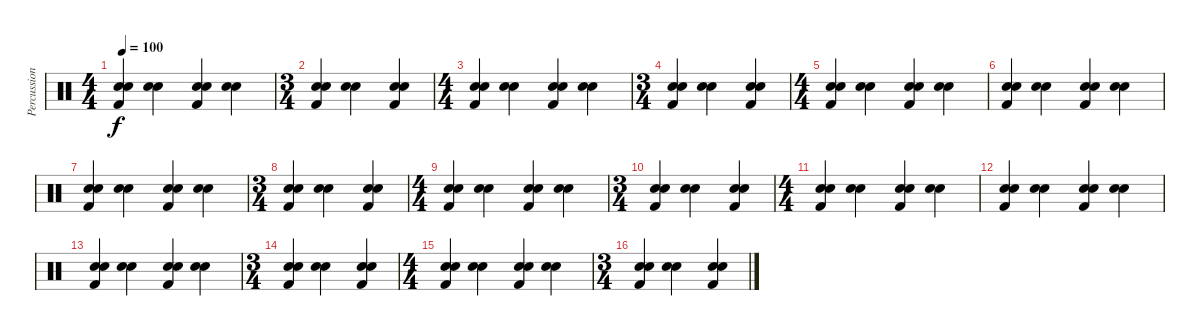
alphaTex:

\track ("Percussion" "Percussion") {instrument percussion}
\staff {score}
\articulation defaults
\ts (4 4)
\tempo 100
\clef neutral
\ks c
("Snare (hit) 2" "Hand Clap (hit)" "Kick (hit) 2").4{dy f} ("Snare (hit) 2" "Hand Clap (hit)").4 ("Snare (hit) 2" "Hand Clap (hit)" "Kick (hit) 2").4 ("Snare (hit) 2" "Hand Clap (hit)").4 |
\ts (3 4)
("Snare (hit) 2" "Hand Clap (hit)" "Kick (hit) 2").4 ("Snare (hit) 2" "Hand Clap (hit)").4 ("Snare (hit) 2" "Hand Clap (hit)" "Kick (hit) 2").4 |
\ts (4 4)
("Snare (hit) 2" "Hand Clap (hit)" "Kick (hit) 2").4 ("Snare (hit) 2" "Hand Clap (hit)").4 ("Snare (hit) 2" "Hand Clap (hit)" "Kick (hit) 2").4 ("Snare (hit) 2" "Hand Clap (hit)").4 |
\ts (3 4)
("Snare (hit) 2" "Hand Clap (hit)" "Kick (hit) 2").4 ("Snare (hit) 2" "Hand Clap (hit)").4 ("Snare (hit) 2" "Hand Clap (hit)" "Kick (hit) 2").4 |
\ts (4 4)
("Snare (hit) 2" "Hand Clap (hit)" "Kick (hit) 2").4 ("Snare (hit) 2" "Hand Clap (hit)").4 ("Snare (hit) 2" "Hand Clap (hit)" "Kick (hit) 2").4 ("Snare (hit) 2" "Hand Clap (hit)").4 |
("Snare (hit) 2" "Hand Clap (hit)" "Kick (hit) 2").4 ("Snare (hit) 2" "Hand Clap (hit)").4 ("Snare (hit) 2" "Hand Clap (hit)" "Kick (hit) 2").4 ("Snare (hit) 2" "Hand Clap (hit)").4 |
("Snare (hit) 2" "Hand Clap (hit)" "Kick (hit) 2").4 ("Snare (hit) 2" "Hand Clap (hit)").4 ("Snare (hit) 2" "Hand Clap (hit)" "Kick (hit) 2").4 ("Snare (hit) 2" "Hand Clap (hit)").4 |
\ts (3 4)
("Snare (hit) 2" "Hand Clap (hit)" "Kick (hit) 2").4 ("Snare (hit) 2" "Hand Clap (hit)").4 ("Snare (hit) 2" "Hand Clap (hit)" "Kick (hit) 2").4 |
\ts (4 4)
("Snare (hit) 2" "Hand Clap (hit)" "Kick (hit) 2").4 ("Snare (hit) 2" "Hand Clap (hit)").4 ("Snare (hit) 2" "Hand Clap (hit)" "Kick (hit) 2").4 ("Snare (hit) 2" "Hand Clap (hit)").4 |
\ts (3 4)
("Snare (hit) 2" "Hand Clap (hit)" "Kick (hit) 2").4 ("Snare (hit) 2" "Hand Clap (hit)").4 ("Snare (hit) 2" "Hand Clap (hit)" "Kick (hit) 2").4 |
\ts (4 4)
("Snare (hit) 2" "Hand Clap (hit)" "Kick (hit) 2").4 ("Snare (hit) 2" "Hand Clap (hit)").4 ("Snare (hit) 2" "Hand Clap (hit)" "Kick (hit) 2").4 ("Snare (hit) 2" "Hand Clap (hit)").4 |
("Snare (hit) 2" "Hand Clap (hit)" "Kick (hit) 2").4 ("Snare (hit) 2" "Hand Clap (hit)").4 ("Snare (hit) 2" "Hand Clap (hit)" "Kick (hit) 2").4 ("Snare (hit) 2" "Hand Clap (hit)").4 |
("Snare (hit) 2" "Hand Clap (hit)" "Kick (hit) 2").4 ("Snare (hit) 2" "Hand Clap (hit)").4 ("Snare (hit) 2" "Hand Clap (hit)" "Kick (hit) 2").4 ("Snare (hit) 2" "Hand Clap (hit)").4 |
\ts (3 4)
("Snare (hit) 2" "Hand Clap (hit)" "Kick (hit) 2").4 ("Snare (hit) 2" "Hand Clap (hit)").4 ("Snare (hit) 2" "Hand Clap (hit)" "Kick (hit) 2").4 |
\ts (4 4)
("Snare (hit) 2" "Hand Clap (hit)" "Kick (hit) 2").4 ("Snare (hit) 2" "Hand Clap (hit)").4 ("Snare (hit) 2" "Hand Clap (hit)" "Kick (hit) 2").4 ("Snare (hit) 2" "Hand Clap (hit)").4 |
\ts (3 4)
("Snare (hit) 2" "Hand Clap (hit)" "Kick (hit) 2").4 ("Snare (hit) 2" "Hand Clap (hit)").4 ("Snare (hit) 2" "Hand Clap (hit)" "Kick (hit) 2").4
